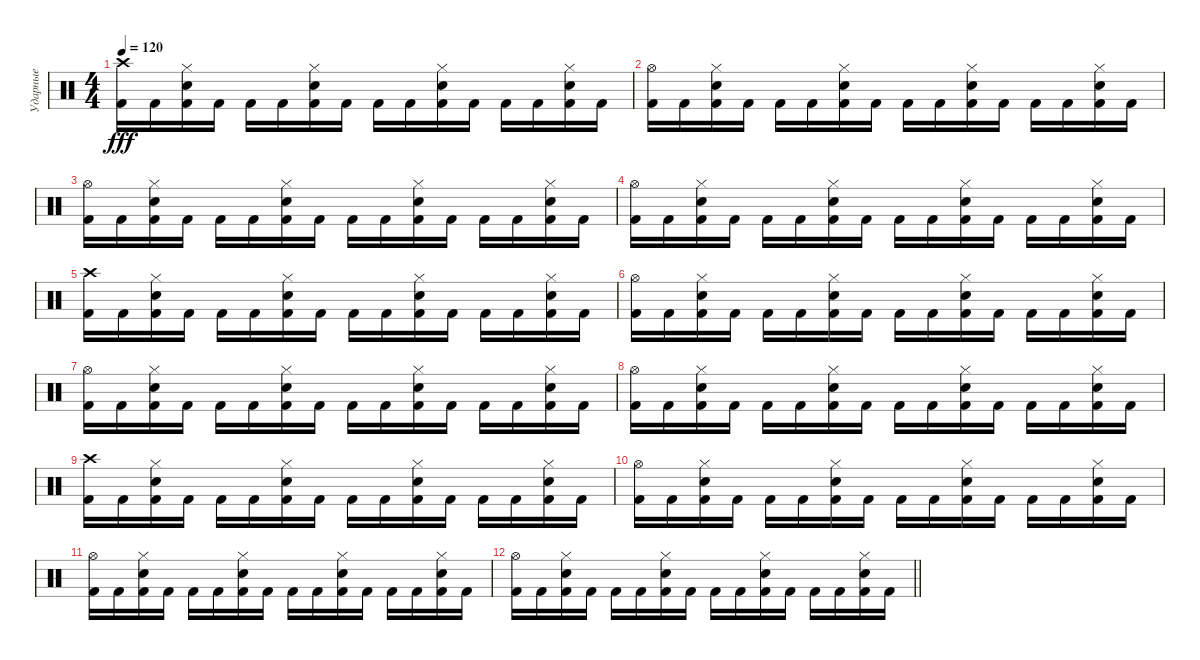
\track ("Ударные" "Ударные") {instrument percussion}
\staff {score}
\articulation defaults
\ts (4 4)
\tempo 120
\clef neutral
\ks c
("Crash high (hit)" "Kick (hit) 2").16{dy fff} "Kick (hit) 2".16 ("Snare (hit) 2" "Hi-Hat (closed)" "Kick (hit) 2").16 "Kick (hit) 2".16 "Kick (hit) 2".16 "Kick (hit) 2".16 ("Snare (hit) 2" "Hi-Hat (closed)" "Kick (hit) 2").16 "Kick (hit) 2".16 "Kick (hit) 2".16 "Kick (hit) 2".16 ("Snare (hit) 2" "Hi-Hat (closed)" "Kick (hit) 2").16 "Kick (hit) 2".16 "Kick (hit) 2".16 "Kick (hit) 2".16 ("Snare (hit) 2" "Hi-Hat (closed)" "Kick (hit) 2").16 "Kick (hit) 2".16 |
("Hi-Hat (open)" "Kick (hit) 2").16 "Kick (hit) 2".16 ("Snare (hit) 2" "Hi-Hat (closed)" "Kick (hit) 2").16 "Kick (hit) 2".16 "Kick (hit) 2".16 "Kick (hit) 2".16 ("Snare (hit) 2" "Hi-Hat (closed)" "Kick (hit) 2").16 "Kick (hit) 2".16 "Kick (hit) 2".16 "Kick (hit) 2".16 ("Snare (hit) 2" "Hi-Hat (closed)" "Kick (hit) 2").16 "Kick (hit) 2".16 "Kick (hit) 2".16 "Kick (hit) 2".16 ("Snare (hit) 2" "Hi-Hat (closed)" "Kick (hit) 2").16 "Kick (hit) 2".16 |
("Hi-Hat (open)" "Kick (hit) 2").16 "Kick (hit) 2".16 ("Snare (hit) 2" "Hi-Hat (closed)" "Kick (hit) 2").16 "Kick (hit) 2".16 "Kick (hit) 2".16 "Kick (hit) 2".16 ("Snare (hit) 2" "Hi-Hat (closed)" "Kick (hit) 2").16 "Kick (hit) 2".16 "Kick (hit) 2".16 "Kick (hit) 2".16 ("Snare (hit) 2" "Hi-Hat (closed)" "Kick (hit) 2").16 "Kick (hit) 2".16 "Kick (hit) 2".16 "Kick (hit) 2".16 ("Snare (hit) 2" "Hi-Hat (closed)" "Kick (hit) 2").16 "Kick (hit) 2".16 |
("Hi-Hat (open)" "Kick (hit) 2").16 "Kick (hit) 2".16 ("Snare (hit) 2" "Hi-Hat (closed)" "Kick (hit) 2").16 "Kick (hit) 2".16 "Kick (hit) 2".16 "Kick (hit) 2".16 ("Snare (hit) 2" "Hi-Hat (closed)" "Kick (hit) 2").16 "Kick (hit) 2".16 "Kick (hit) 2".16 "Kick (hit) 2".16 ("Snare (hit) 2" "Hi-Hat (closed)" "Kick (hit) 2").16 "Kick (hit) 2".16 "Kick (hit) 2".16 "Kick (hit) 2".16 ("Snare (hit) 2" "Hi-Hat (closed)" "Kick (hit) 2").16 "Kick (hit) 2".16 |
("Crash high (hit)" "Kick (hit) 2").16 "Kick (hit) 2".16 ("Snare (hit) 2" "Hi-Hat (closed)" "Kick (hit) 2").16 "Kick (hit) 2".16 "Kick (hit) 2".16 "Kick (hit) 2".16 ("Snare (hit) 2" "Hi-Hat (closed)" "Kick (hit) 2").16 "Kick (hit) 2".16 "Kick (hit) 2".16 "Kick (hit) 2".16 ("Snare (hit) 2" "Hi-Hat (closed)" "Kick (hit) 2").16 "Kick (hit) 2".16 "Kick (hit) 2".16 "Kick (hit) 2".16 ("Snare (hit) 2" "Hi-Hat (closed)" "Kick (hit) 2").16 "Kick (hit) 2".16 |
("Hi-Hat (open)" "Kick (hit) 2").16 "Kick (hit) 2".16 ("Snare (hit) 2" "Hi-Hat (closed)" "Kick (hit) 2").16 "Kick (hit) 2".16 "Kick (hit) 2".16 "Kick (hit) 2".16 ("Snare (hit) 2" "Hi-Hat (closed)" "Kick (hit) 2").16 "Kick (hit) 2".16 "Kick (hit) 2".16 "Kick (hit) 2".16 ("Snare (hit) 2" "Hi-Hat (closed)" "Kick (hit) 2").16 "Kick (hit) 2".16 "Kick (hit) 2".16 "Kick (hit) 2".16 ("Snare (hit) 2" "Hi-Hat (closed)" "Kick (hit) 2").16 "Kick (hit) 2".16 |
("Hi-Hat (open)" "Kick (hit) 2").16 "Kick (hit) 2".16 ("Snare (hit) 2" "Hi-Hat (closed)" "Kick (hit) 2").16 "Kick (hit) 2".16 "Kick (hit) 2".16 "Kick (hit) 2".16 ("Snare (hit) 2" "Hi-Hat (closed)" "Kick (hit) 2").16 "Kick (hit) 2".16 "Kick (hit) 2".16 "Kick (hit) 2".16 ("Snare (hit) 2" "Hi-Hat (closed)" "Kick (hit) 2").16 "Kick (hit) 2".16 "Kick (hit) 2".16 "Kick (hit) 2".16 ("Snare (hit) 2" "Hi-Hat (closed)" "Kick (hit) 2").16 "Kick (hit) 2".16 |
("Hi-Hat (open)" "Kick (hit) 2").16 "Kick (hit) 2".16 ("Snare (hit) 2" "Hi-Hat (closed)" "Kick (hit) 2").16 "Kick (hit) 2".16 "Kick (hit) 2".16 "Kick (hit) 2".16 ("Snare (hit) 2" "Hi-Hat (closed)" "Kick (hit) 2").16 "Kick (hit) 2".16 "Kick (hit) 2".16 "Kick (hit) 2".16 ("Snare (hit) 2" "Hi-Hat (closed)" "Kick (hit) 2").16 "Kick (hit) 2".16 "Kick (hit) 2".16 "Kick (hit) 2".16 ("Snare (hit) 2" "Hi-Hat (closed)" "Kick (hit) 2").16 "Kick (hit) 2".16 |
("Crash high (hit)" "Kick (hit) 2").16 "Kick (hit) 2".16 ("Snare (hit) 2" "Hi-Hat (closed)" "Kick (hit) 2").16 "Kick (hit) 2".16 "Kick (hit) 2".16 "Kick (hit) 2".16 ("Snare (hit) 2" "Hi-Hat (closed)" "Kick (hit) 2").16 "Kick (hit) 2".16 "Kick (hit) 2".16 "Kick (hit) 2".16 ("Snare (hit) 2" "Hi-Hat (closed)" "Kick (hit) 2").16 "Kick (hit) 2".16 "Kick (hit) 2".16 "Kick (hit) 2".16 ("Snare (hit) 2" "Hi-Hat (closed)" "Kick (hit) 2").16 "Kick (hit) 2".16 |
("Hi-Hat (open)" "Kick (hit) 2").16 "Kick (hit) 2".16 ("Snare (hit) 2" "Hi-Hat (closed)" "Kick (hit) 2").16 "Kick (hit) 2".16 "Kick (hit) 2".16 "Kick (hit) 2".16 ("Snare (hit) 2" "Hi-Hat (closed)" "Kick (hit) 2").16 "Kick (hit) 2".16 "Kick (hit) 2".16 "Kick (hit) 2".16 ("Snare (hit) 2" "Hi-Hat (closed)" "Kick (hit) 2").16 "Kick (hit) 2".16 "Kick (hit) 2".16 "Kick (hit) 2".16 ("Snare (hit) 2" "Hi-Hat (closed)" "Kick (hit) 2").16 "Kick (hit) 2".16 |
("Hi-Hat (open)" "Kick (hit) 2").16 "Kick (hit) 2".16 ("Snare (hit) 2" "Hi-Hat (closed)" "Kick (hit) 2").16 "Kick (hit) 2".16 "Kick (hit) 2".16 "Kick (hit) 2".16 ("Snare (hit) 2" "Hi-Hat (closed)" "Kick (hit) 2").16 "Kick (hit) 2".16 "Kick (hit) 2".16 "Kick (hit) 2".16 ("Snare (hit) 2" "Hi-Hat (closed)" "Kick (hit) 2").16 "Kick (hit) 2".16 "Kick (hit) 2".16 "Kick (hit) 2".16 ("Snare (hit) 2" "Hi-Hat (closed)" "Kick (hit) 2").16 "Kick (hit) 2".16 |
\barLineRight lightlight
("Hi-Hat (open)" "Kick (hit) 2").16 "Kick (hit) 2".16 ("Snare (hit) 2" "Hi-Hat (closed)" "Kick (hit) 2").16 "Kick (hit) 2".16 "Kick (hit) 2".16 "Kick (hit) 2".16 ("Snare (hit) 2" "Hi-Hat (closed)" "Kick (hit) 2").16 "Kick (hit) 2".16 "Kick (hit) 2".16 "Kick (hit) 2".16 ("Snare (hit) 2" "Hi-Hat (closed)" "Kick (hit) 2").16 "Kick (hit) 2".16 "Kick (hit) 2".16 "Kick (hit) 2".16 ("Snare (hit) 2" "Hi-Hat (closed)" "Kick (hit) 2").16 "Kick (hit) 2".16
